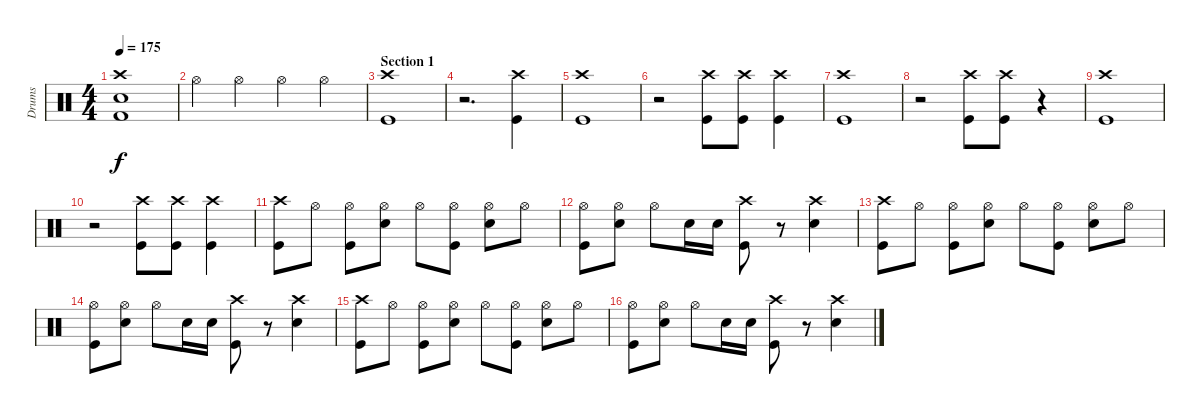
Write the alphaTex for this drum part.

\track ("Drums" "Drums") {instrument percussion}
\staff {score}
\articulation defaults
\ts (4 4)
\tempo 175
\clef neutral
\ks c
("Crash high (hit)" "Electric Snare (hit)" "Kick (hit) 2").1{dy f} |
"Hi-Hat (open)".4 "Hi-Hat (open)".4 "Hi-Hat (open)".4 "Hi-Hat (open)".4 |
\section ("" "Section 1")
("Crash high (hit)" "Kick (hit)").1 |
r.2{d} ("Crash high (hit)" "Kick (hit)").4 |
("Crash high (hit)" "Kick (hit)").1 |
r.2 ("Crash high (hit)" "Kick (hit)").8 ("Crash high (hit)" "Kick (hit)").8 ("Crash high (hit)" "Kick (hit)").4 |
("Crash high (hit)" "Kick (hit)").1 |
r.2 ("Crash high (hit)" "Kick (hit)").8 ("Crash high (hit)" "Kick (hit)").8 r.4 |
("Crash high (hit)" "Kick (hit)").1 |
r.2 ("Crash high (hit)" "Kick (hit)").8 ("Crash high (hit)" "Kick (hit)").8 ("Crash high (hit)" "Kick (hit)").4 |
("Crash high (hit)" "Kick (hit)").8 "Hi-Hat (open)".8 ("Hi-Hat (open)" "Kick (hit)").8 ("Hi-Hat (open)" "Electric Snare (hit)").8 "Hi-Hat (open)".8 ("Hi-Hat (open)" "Kick (hit)").8 ("Hi-Hat (open)" "Electric Snare (hit)").8 "Hi-Hat (open)".8 |
("Hi-Hat (open)" "Kick (hit)").8 ("Hi-Hat (open)" "Electric Snare (hit)").8 "Hi-Hat (open)".8 "Electric Snare (hit)".16 "Electric Snare (hit)".16 ("Crash high (hit)" "Kick (hit)").8 r.8 ("Crash high (hit)" "Electric Snare (hit)").4 |
("Crash high (hit)" "Kick (hit)").8 "Hi-Hat (open)".8 ("Hi-Hat (open)" "Kick (hit)").8 ("Hi-Hat (open)" "Electric Snare (hit)").8 "Hi-Hat (open)".8 ("Hi-Hat (open)" "Kick (hit)").8 ("Hi-Hat (open)" "Electric Snare (hit)").8 "Hi-Hat (open)".8 |
("Hi-Hat (open)" "Kick (hit)").8 ("Hi-Hat (open)" "Electric Snare (hit)").8 "Hi-Hat (open)".8 "Electric Snare (hit)".16 "Electric Snare (hit)".16 ("Crash high (hit)" "Kick (hit)").8 r.8 ("Crash high (hit)" "Electric Snare (hit)").4 |
("Crash high (hit)" "Kick (hit)").8 "Hi-Hat (open)".8 ("Hi-Hat (open)" "Kick (hit)").8 ("Hi-Hat (open)" "Electric Snare (hit)").8 "Hi-Hat (open)".8 ("Hi-Hat (open)" "Kick (hit)").8 ("Hi-Hat (open)" "Electric Snare (hit)").8 "Hi-Hat (open)".8 |
("Hi-Hat (open)" "Kick (hit)").8 ("Hi-Hat (open)" "Electric Snare (hit)").8 "Hi-Hat (open)".8 "Electric Snare (hit)".16 "Electric Snare (hit)".16 ("Crash high (hit)" "Kick (hit)").8 r.8 ("Crash high (hit)" "Electric Snare (hit)").4
